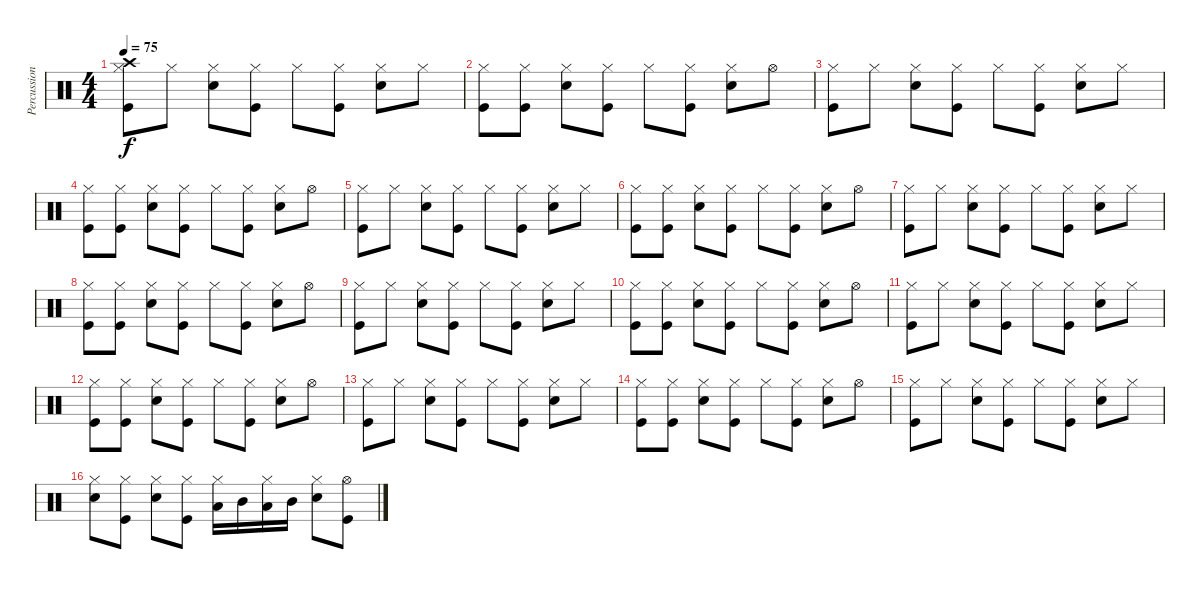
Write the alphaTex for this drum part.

\track ("Percussion" "Percussion") {instrument percussion}
\staff {score}
\articulation defaults
\ts (4 4)
\tempo 75
\clef neutral
\ks c
("Hi-Hat (closed)" "Kick (hit)" "Crash high (hit)").8{dy f} "Hi-Hat (closed)".8 ("Hi-Hat (closed)" "Electric Snare (hit)").8 ("Hi-Hat (closed)" "Kick (hit)").8 "Hi-Hat (closed)".8 ("Hi-Hat (closed)" "Kick (hit)").8 ("Hi-Hat (closed)" "Electric Snare (hit)").8 "Hi-Hat (closed)".8 |
("Hi-Hat (closed)" "Kick (hit)").8 ("Hi-Hat (closed)" "Kick (hit)").8 ("Hi-Hat (closed)" "Electric Snare (hit)").8 ("Hi-Hat (closed)" "Kick (hit)").8 "Hi-Hat (closed)".8 ("Hi-Hat (closed)" "Kick (hit)").8 ("Hi-Hat (closed)" "Electric Snare (hit)").8 "Hi-Hat (open)".8 |
("Hi-Hat (closed)" "Kick (hit)").8 "Hi-Hat (closed)".8 ("Hi-Hat (closed)" "Electric Snare (hit)").8 ("Hi-Hat (closed)" "Kick (hit)").8 "Hi-Hat (closed)".8 ("Hi-Hat (closed)" "Kick (hit)").8 ("Hi-Hat (closed)" "Electric Snare (hit)").8 "Hi-Hat (closed)".8 |
("Hi-Hat (closed)" "Kick (hit)").8 ("Hi-Hat (closed)" "Kick (hit)").8 ("Hi-Hat (closed)" "Electric Snare (hit)").8 ("Hi-Hat (closed)" "Kick (hit)").8 "Hi-Hat (closed)".8 ("Hi-Hat (closed)" "Kick (hit)").8 ("Hi-Hat (closed)" "Electric Snare (hit)").8 "Hi-Hat (open)".8 |
("Hi-Hat (closed)" "Kick (hit)").8 "Hi-Hat (closed)".8 ("Hi-Hat (closed)" "Electric Snare (hit)").8 ("Hi-Hat (closed)" "Kick (hit)").8 "Hi-Hat (closed)".8 ("Hi-Hat (closed)" "Kick (hit)").8 ("Hi-Hat (closed)" "Electric Snare (hit)").8 "Hi-Hat (closed)".8 |
("Hi-Hat (closed)" "Kick (hit)").8 ("Hi-Hat (closed)" "Kick (hit)").8 ("Hi-Hat (closed)" "Electric Snare (hit)").8 ("Hi-Hat (closed)" "Kick (hit)").8 "Hi-Hat (closed)".8 ("Hi-Hat (closed)" "Kick (hit)").8 ("Hi-Hat (closed)" "Electric Snare (hit)").8 "Hi-Hat (open)".8 |
("Hi-Hat (closed)" "Kick (hit)").8 "Hi-Hat (closed)".8 ("Hi-Hat (closed)" "Electric Snare (hit)").8 ("Hi-Hat (closed)" "Kick (hit)").8 "Hi-Hat (closed)".8 ("Hi-Hat (closed)" "Kick (hit)").8 ("Hi-Hat (closed)" "Electric Snare (hit)").8 "Hi-Hat (closed)".8 |
("Hi-Hat (closed)" "Kick (hit)").8 ("Hi-Hat (closed)" "Kick (hit)").8 ("Hi-Hat (closed)" "Electric Snare (hit)").8 ("Hi-Hat (closed)" "Kick (hit)").8 "Hi-Hat (closed)".8 ("Hi-Hat (closed)" "Kick (hit)").8 ("Hi-Hat (closed)" "Electric Snare (hit)").8 "Hi-Hat (open)".8 |
("Hi-Hat (closed)" "Kick (hit)").8 "Hi-Hat (closed)".8 ("Hi-Hat (closed)" "Electric Snare (hit)").8 ("Hi-Hat (closed)" "Kick (hit)").8 "Hi-Hat (closed)".8 ("Hi-Hat (closed)" "Kick (hit)").8 ("Hi-Hat (closed)" "Electric Snare (hit)").8 "Hi-Hat (closed)".8 |
("Hi-Hat (closed)" "Kick (hit)").8 ("Hi-Hat (closed)" "Kick (hit)").8 ("Hi-Hat (closed)" "Electric Snare (hit)").8 ("Hi-Hat (closed)" "Kick (hit)").8 "Hi-Hat (closed)".8 ("Hi-Hat (closed)" "Kick (hit)").8 ("Hi-Hat (closed)" "Electric Snare (hit)").8 "Hi-Hat (open)".8 |
("Hi-Hat (closed)" "Kick (hit)").8 "Hi-Hat (closed)".8 ("Hi-Hat (closed)" "Electric Snare (hit)").8 ("Hi-Hat (closed)" "Kick (hit)").8 "Hi-Hat (closed)".8 ("Hi-Hat (closed)" "Kick (hit)").8 ("Hi-Hat (closed)" "Electric Snare (hit)").8 "Hi-Hat (closed)".8 |
("Hi-Hat (closed)" "Kick (hit)").8 ("Hi-Hat (closed)" "Kick (hit)").8 ("Hi-Hat (closed)" "Electric Snare (hit)").8 ("Hi-Hat (closed)" "Kick (hit)").8 "Hi-Hat (closed)".8 ("Hi-Hat (closed)" "Kick (hit)").8 ("Hi-Hat (closed)" "Electric Snare (hit)").8 "Hi-Hat (open)".8 |
("Hi-Hat (closed)" "Kick (hit)").8 "Hi-Hat (closed)".8 ("Hi-Hat (closed)" "Electric Snare (hit)").8 ("Hi-Hat (closed)" "Kick (hit)").8 "Hi-Hat (closed)".8 ("Hi-Hat (closed)" "Kick (hit)").8 ("Hi-Hat (closed)" "Electric Snare (hit)").8 "Hi-Hat (closed)".8 |
("Hi-Hat (closed)" "Kick (hit)").8 ("Hi-Hat (closed)" "Kick (hit)").8 ("Hi-Hat (closed)" "Electric Snare (hit)").8 ("Hi-Hat (closed)" "Kick (hit)").8 "Hi-Hat (closed)".8 ("Hi-Hat (closed)" "Kick (hit)").8 ("Hi-Hat (closed)" "Electric Snare (hit)").8 "Hi-Hat (open)".8 |
("Hi-Hat (closed)" "Kick (hit)").8 "Hi-Hat (closed)".8 ("Hi-Hat (closed)" "Electric Snare (hit)").8 ("Hi-Hat (closed)" "Kick (hit)").8 "Hi-Hat (closed)".8 ("Hi-Hat (closed)" "Kick (hit)").8 ("Hi-Hat (closed)" "Electric Snare (hit)").8 "Hi-Hat (closed)".8 |
("Hi-Hat (closed)" "Electric Snare (hit)").8 ("Hi-Hat (closed)" "Kick (hit)").8 ("Hi-Hat (closed)" "Electric Snare (hit)").8 ("Hi-Hat (closed)" "Kick (hit)").8 ("Hi-Hat (closed)" "Low Tom (hit)").16 "Mid Tom (hit)".16 ("Hi-Hat (closed)" "Low Tom (hit)").16 "Mid Tom (hit)".16 ("Hi-Hat (closed)" "Electric Snare (hit)").8 ("Hi-Hat (open)" "Kick (hit)").8
